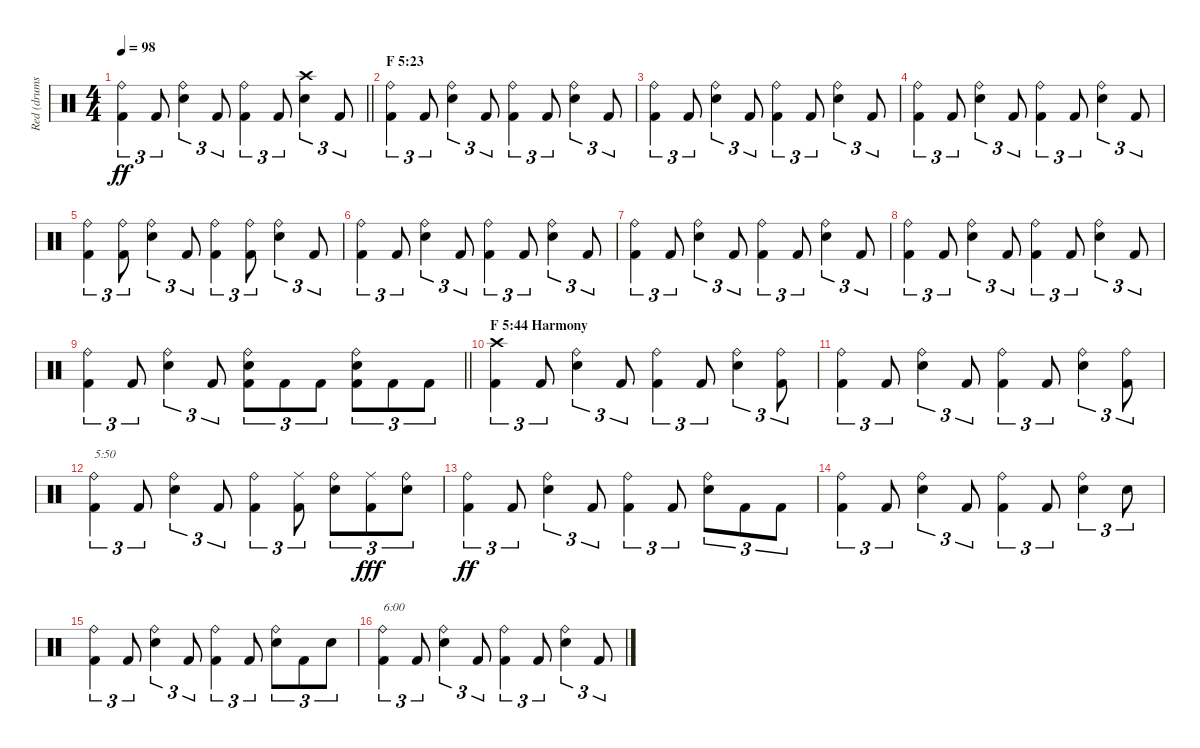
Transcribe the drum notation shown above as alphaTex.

\track ("Red (drums)" "Red (drums") {instrument percussion}
\staff {score}
\articulation defaults
\ts (4 4)
\tempo 98
\clef neutral
\barLineRight lightlight
\ks c
("Ride (bell)" "Kick (hit) 2").4{tu (3 2) dy ff} "Kick (hit) 2".8{tu (3 2)} ("Ride (bell)" "Electric Snare (hit)").4{tu (3 2)} "Kick (hit) 2".8{tu (3 2)} ("Ride (bell)" "Kick (hit) 2").4{tu (3 2)} "Kick (hit) 2".8{tu (3 2)} ("Crash high (hit)" "Electric Snare (hit)").4{tu (3 2)} "Kick (hit) 2".8{tu (3 2)} |
\section ("" "F 5:23")
("Ride (bell)" "Kick (hit) 2").4{tu (3 2)} "Kick (hit) 2".8{tu (3 2)} ("Ride (bell)" "Electric Snare (hit)").4{tu (3 2)} "Kick (hit) 2".8{tu (3 2)} ("Ride (bell)" "Kick (hit) 2").4{tu (3 2)} "Kick (hit) 2".8{tu (3 2)} ("Ride (bell)" "Electric Snare (hit)").4{tu (3 2)} "Kick (hit) 2".8{tu (3 2)} |
("Ride (bell)" "Kick (hit) 2").4{tu (3 2)} "Kick (hit) 2".8{tu (3 2)} ("Ride (bell)" "Electric Snare (hit)").4{tu (3 2)} "Kick (hit) 2".8{tu (3 2)} ("Ride (bell)" "Kick (hit) 2").4{tu (3 2)} "Kick (hit) 2".8{tu (3 2)} ("Ride (bell)" "Electric Snare (hit)").4{tu (3 2)} "Kick (hit) 2".8{tu (3 2)} |
("Ride (bell)" "Kick (hit) 2").4{tu (3 2)} "Kick (hit) 2".8{tu (3 2)} ("Ride (bell)" "Electric Snare (hit)").4{tu (3 2)} "Kick (hit) 2".8{tu (3 2)} ("Ride (bell)" "Kick (hit) 2").4{tu (3 2)} "Kick (hit) 2".8{tu (3 2)} ("Ride (bell)" "Electric Snare (hit)").4{tu (3 2)} "Kick (hit) 2".8{tu (3 2)} |
("Ride (bell)" "Kick (hit) 2").4{tu (3 2)} ("Ride (bell)" "Kick (hit) 2").8{tu (3 2)} ("Ride (bell)" "Electric Snare (hit)").4{tu (3 2)} "Kick (hit) 2".8{tu (3 2)} ("Ride (bell)" "Kick (hit) 2").4{tu (3 2)} ("Ride (bell)" "Kick (hit) 2").8{tu (3 2)} ("Ride (bell)" "Electric Snare (hit)").4{tu (3 2)} "Kick (hit) 2".8{tu (3 2)} |
("Ride (bell)" "Kick (hit) 2").4{tu (3 2)} "Kick (hit) 2".8{tu (3 2)} ("Ride (bell)" "Electric Snare (hit)").4{tu (3 2)} "Kick (hit) 2".8{tu (3 2)} ("Ride (bell)" "Kick (hit) 2").4{tu (3 2)} "Kick (hit) 2".8{tu (3 2)} ("Ride (bell)" "Electric Snare (hit)").4{tu (3 2)} "Kick (hit) 2".8{tu (3 2)} |
("Ride (bell)" "Kick (hit) 2").4{tu (3 2)} "Kick (hit) 2".8{tu (3 2)} ("Ride (bell)" "Electric Snare (hit)").4{tu (3 2)} "Kick (hit) 2".8{tu (3 2)} ("Ride (bell)" "Kick (hit) 2").4{tu (3 2)} "Kick (hit) 2".8{tu (3 2)} ("Ride (bell)" "Electric Snare (hit)").4{tu (3 2)} "Kick (hit) 2".8{tu (3 2)} |
("Ride (bell)" "Kick (hit) 2").4{tu (3 2)} "Kick (hit) 2".8{tu (3 2)} ("Ride (bell)" "Electric Snare (hit)").4{tu (3 2)} "Kick (hit) 2".8{tu (3 2)} ("Ride (bell)" "Kick (hit) 2").4{tu (3 2)} "Kick (hit) 2".8{tu (3 2)} ("Ride (bell)" "Electric Snare (hit)").4{tu (3 2)} "Kick (hit) 2".8{tu (3 2)} |
\barLineRight lightlight
("Ride (bell)" "Kick (hit) 2").4{tu (3 2)} "Kick (hit) 2".8{tu (3 2)} ("Ride (bell)" "Electric Snare (hit)").4{tu (3 2)} "Kick (hit) 2".8{tu (3 2)} ("Ride (bell)" "Electric Snare (hit)" "Kick (hit) 2").8{tu (3 2)} "Kick (hit) 2".8{tu (3 2)} "Kick (hit) 2".8{tu (3 2)} ("Ride (bell)" "Electric Snare (hit)" "Kick (hit) 2").8{tu (3 2)} "Kick (hit) 2".8{tu (3 2)} "Kick (hit) 2".8{tu (3 2)} |
\section ("" "F 5:44 Harmony ")
("Crash high (hit)" "Kick (hit) 2").4{tu (3 2)} "Kick (hit) 2".8{tu (3 2)} ("Ride (bell)" "Electric Snare (hit)").4{tu (3 2)} "Kick (hit) 2".8{tu (3 2)} ("Ride (bell)" "Kick (hit) 2").4{tu (3 2)} "Kick (hit) 2".8{tu (3 2)} ("Ride (bell)" "Electric Snare (hit)").4{tu (3 2)} ("Ride (bell)" "Kick (hit) 2").8{tu (3 2)} |
("Ride (bell)" "Kick (hit) 2").4{tu (3 2)} "Kick (hit) 2".8{tu (3 2)} ("Ride (bell)" "Electric Snare (hit)").4{tu (3 2)} "Kick (hit) 2".8{tu (3 2)} ("Ride (bell)" "Kick (hit) 2").4{tu (3 2)} "Kick (hit) 2".8{tu (3 2)} ("Ride (bell)" "Electric Snare (hit)").4{tu (3 2)} ("Ride (bell)" "Kick (hit) 2").8{tu (3 2)} |
("Ride (bell)" "Kick (hit) 2").4{tu (3 2) txt "5:50"} "Kick (hit) 2".8{tu (3 2)} ("Ride (bell)" "Electric Snare (hit)").4{tu (3 2)} "Kick (hit) 2".8{tu (3 2)} ("Ride (bell)" "Kick (hit) 2").4{tu (3 2)} ("Ride (middle)" "Kick (hit) 2").8{tu (3 2)} ("Ride (bell)" "Electric Snare (hit)").8{tu (3 2)} ("Ride (middle)" "Kick (hit) 2").8{tu (3 2) dy fff} ("Ride (bell)" "Electric Snare (hit)").8{tu (3 2)} |
("Ride (bell)" "Kick (hit) 2").4{tu (3 2) dy ff} "Kick (hit) 2".8{tu (3 2)} ("Ride (bell)" "Electric Snare (hit)").4{tu (3 2)} "Kick (hit) 2".8{tu (3 2)} ("Ride (bell)" "Kick (hit) 2").4{tu (3 2)} "Kick (hit) 2".8{tu (3 2)} ("Ride (bell)" "Electric Snare (hit)").8{tu (3 2)} "Kick (hit) 2".8{tu (3 2)} "Kick (hit) 2".8{tu (3 2)} |
("Ride (bell)" "Kick (hit) 2").4{tu (3 2)} "Kick (hit) 2".8{tu (3 2)} ("Ride (bell)" "Electric Snare (hit)").4{tu (3 2)} "Kick (hit) 2".8{tu (3 2)} ("Ride (bell)" "Kick (hit) 2").4{tu (3 2)} "Kick (hit) 2".8{tu (3 2)} ("Ride (bell)" "Electric Snare (hit)").4{tu (3 2)} "Electric Snare (hit)".8{tu (3 2)} |
("Ride (bell)" "Kick (hit) 2").4{tu (3 2)} "Kick (hit) 2".8{tu (3 2)} ("Ride (bell)" "Electric Snare (hit)").4{tu (3 2)} "Kick (hit) 2".8{tu (3 2)} ("Ride (bell)" "Kick (hit) 2").4{tu (3 2)} "Kick (hit) 2".8{tu (3 2)} ("Ride (bell)" "Electric Snare (hit)").8{tu (3 2)} "Kick (hit) 2".8{tu (3 2)} "Electric Snare (hit)".8{tu (3 2)} |
("Ride (bell)" "Kick (hit) 2").4{tu (3 2) txt "6:00"} "Kick (hit) 2".8{tu (3 2)} ("Ride (bell)" "Electric Snare (hit)").4{tu (3 2)} "Kick (hit) 2".8{tu (3 2)} ("Ride (bell)" "Kick (hit) 2").4{tu (3 2)} "Kick (hit) 2".8{tu (3 2)} ("Ride (bell)" "Electric Snare (hit)").4{tu (3 2)} "Kick (hit) 2".8{tu (3 2)}
